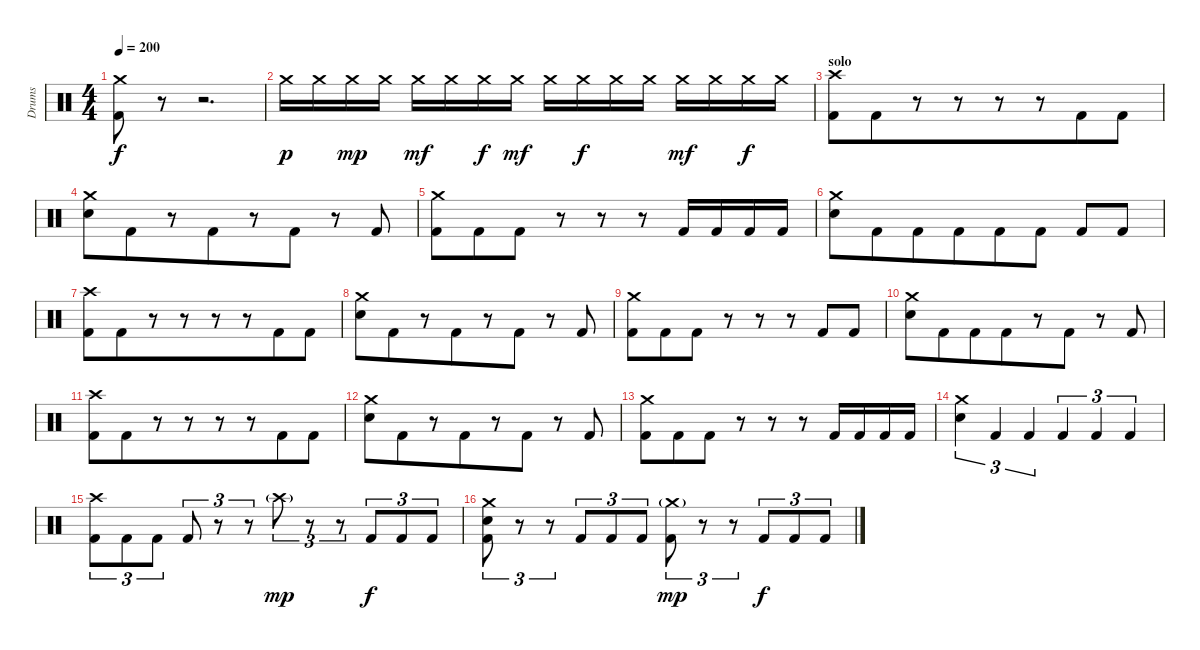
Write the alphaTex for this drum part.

\track ("Drums" "Drums") {instrument percussion}
\staff {score}
\articulation defaults
\ts (4 4)
\tempo 200
\clef neutral
\ks c
("Crash medium (hit)" "Kick (hit) 2").8{dy f} r.8{volume 0} r.2{d} |
"Crash medium (hit)".16{dy p volume 16} "Crash medium (hit)".16 "Crash medium (hit)".16{dy mp} "Crash medium (hit)".16 "Crash medium (hit)".16{dy mf} "Crash medium (hit)".16 "Crash medium (hit)".16{dy f} "Crash medium (hit)".16{dy mf} "Crash medium (hit)".16 "Crash medium (hit)".16{dy f} "Crash medium (hit)".16 "Crash medium (hit)".16 "Crash medium (hit)".16{dy mf} "Crash medium (hit)".16 "Crash medium (hit)".16{dy f} "Crash medium (hit)".16 |
\section ("" "solo")
("Crash high (hit)" "Kick (hit) 2").8{volume 16} "Kick (hit) 2".8{beam merge} r.8 r.8 r.8{beam merge} r.8 "Kick (hit) 2".8{beam merge} "Kick (hit) 2".8 |
("Crash medium (hit)" "Electric Snare (hit)").8 "Kick (hit) 2".8{beam merge} r.8 "Kick (hit) 2".8{beam merge} r.8 "Kick (hit) 2".8 r.8{beam merge} "Kick (hit) 2".8 |
("Crash medium (hit)" "Kick (hit) 2").8 "Kick (hit) 2".8{beam merge} "Kick (hit) 2".8 r.8 r.8{beam merge} r.8 "Kick (hit) 2".16{beam merge} "Kick (hit) 2".16{beam merge} "Kick (hit) 2".16 "Kick (hit) 2".16 |
("Crash medium (hit)" "Electric Snare (hit)").8 "Kick (hit) 2".8{beam merge} "Kick (hit) 2".8 "Kick (hit) 2".8{beam merge} "Kick (hit) 2".8 "Kick (hit) 2".8 "Kick (hit) 2".8 "Kick (hit) 2".8 |
("Crash high (hit)" "Kick (hit) 2").8 "Kick (hit) 2".8{beam merge} r.8 r.8 r.8{beam merge} r.8 "Kick (hit) 2".8{beam merge} "Kick (hit) 2".8 |
("Crash medium (hit)" "Electric Snare (hit)").8 "Kick (hit) 2".8{beam merge} r.8 "Kick (hit) 2".8{beam merge} r.8 "Kick (hit) 2".8 r.8{beam merge} "Kick (hit) 2".8 |
("Crash medium (hit)" "Kick (hit) 2").8 "Kick (hit) 2".8{beam merge} "Kick (hit) 2".8 r.8 r.8{beam merge} r.8 "Kick (hit) 2".8{beam merge} "Kick (hit) 2".8 |
("Crash medium (hit)" "Electric Snare (hit)").8 "Kick (hit) 2".8{beam merge} "Kick (hit) 2".8 "Kick (hit) 2".8{beam merge} r.8 "Kick (hit) 2".8 r.8{beam merge} "Kick (hit) 2".8 |
("Crash high (hit)" "Kick (hit) 2").8 "Kick (hit) 2".8{beam merge} r.8 r.8 r.8{beam merge} r.8 "Kick (hit) 2".8{beam merge} "Kick (hit) 2".8 |
("Crash medium (hit)" "Electric Snare (hit)").8 "Kick (hit) 2".8{beam merge} r.8 "Kick (hit) 2".8{beam merge} r.8 "Kick (hit) 2".8 r.8{beam merge} "Kick (hit) 2".8 |
("Crash medium (hit)" "Kick (hit) 2").8 "Kick (hit) 2".8{beam merge} "Kick (hit) 2".8 r.8 r.8{beam merge} r.8 "Kick (hit) 2".16{beam merge} "Kick (hit) 2".16{beam merge} "Kick (hit) 2".16 "Kick (hit) 2".16 |
("Crash medium (hit)" "Electric Snare (hit)").4{tu (3 2)} "Kick (hit) 2".4{tu (3 2) beam merge} "Kick (hit) 2".4{tu (3 2)} "Kick (hit) 2".4{tu (3 2)} "Kick (hit) 2".4{tu (3 2)} "Kick (hit) 2".4{tu (3 2)} |
("Crash high (hit)" "Kick (hit) 2").8{tu (3 2)} "Kick (hit) 2".8{tu (3 2) beam merge} "Kick (hit) 2".8{tu (3 2)} "Kick (hit) 2".8{tu (3 2)} r.8{tu (3 2) beam merge} r.8{tu (3 2)} "Crash high (hit)"{g}.8{tu (3 2) dy mp} r.8{tu (3 2) beam merge} r.8{tu (3 2)} "Kick (hit) 2".8{tu (3 2) dy f} "Kick (hit) 2".8{tu (3 2) beam merge} "Kick (hit) 2".8{tu (3 2)} |
("Crash medium (hit)" "Electric Snare (hit)" "Kick (hit) 2").8{tu (3 2)} r.8{tu (3 2) beam merge} r.8{tu (3 2)} "Kick (hit) 2".8{tu (3 2)} "Kick (hit) 2".8{tu (3 2) beam merge} "Kick (hit) 2".8{tu (3 2)} ("Crash medium (hit)"{g} "Kick (hit) 2").8{tu (3 2) dy mp} r.8{tu (3 2) beam merge} r.8{tu (3 2)} "Kick (hit) 2".8{tu (3 2) dy f} "Kick (hit) 2".8{tu (3 2) beam merge} "Kick (hit) 2".8{tu (3 2)}
